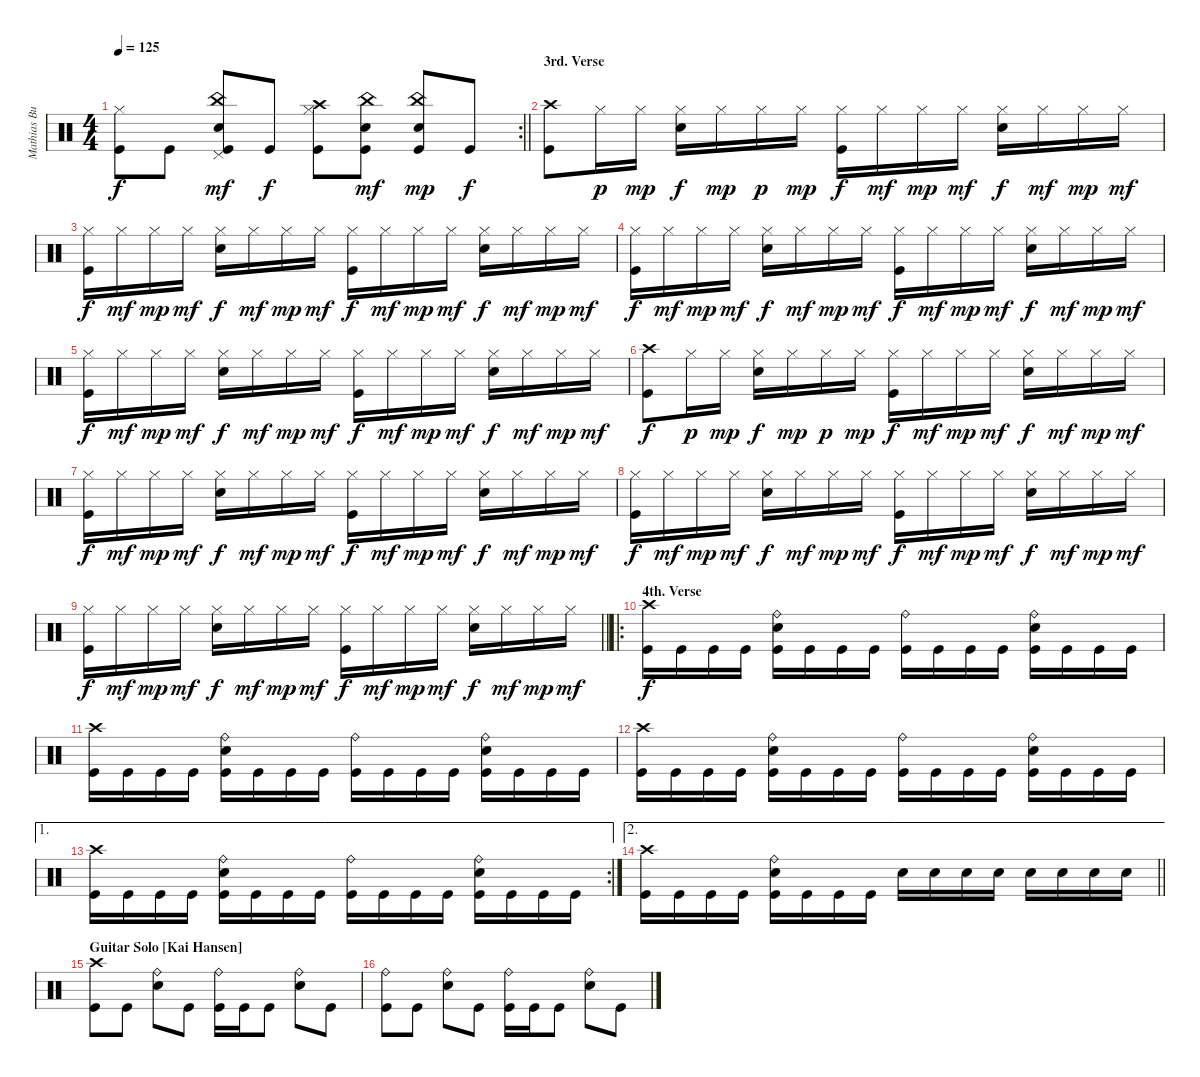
\track ("Mathias Burchardt" "Mathias Bu") {instrument percussion}
\staff {score}
\articulation defaults
\rc 2
\ts (4 4)
\tempo 125
\clef neutral
\barLineRight lightlight
\ks c
("Hi-Hat (closed)" "Kick (hit)").8{dy f} "Kick (hit)".8 ("China (hit)" "Pedal Hi-Hat (hit)" "Snare (hit) 2" "Kick (hit)").8{dy mf} "Kick (hit)".8{dy f} ("Crash high (hit)" "Hi-Hat (closed)" "Kick (hit)").8 ("China (hit)" "Snare (hit) 2" "Kick (hit)").8{dy mf} ("China (hit)" "Snare (hit) 2" "Kick (hit)").8{dy mp} "Kick (hit)".8{dy f} |
\section ("" "3rd. Verse")
("Crash high (hit)" "Kick (hit)").8 "Hi-Hat (closed)".16{dy p} "Hi-Hat (closed)".16{dy mp} ("Hi-Hat (closed)" "Snare (hit) 2").16{dy f} "Hi-Hat (closed)".16{dy mp} "Hi-Hat (closed)".16{dy p} "Hi-Hat (closed)".16{dy mp} ("Hi-Hat (closed)" "Kick (hit)").16{dy f} "Hi-Hat (closed)".16{dy mf} "Hi-Hat (closed)".16{dy mp} "Hi-Hat (closed)".16{dy mf} ("Hi-Hat (closed)" "Snare (hit) 2").16{dy f} "Hi-Hat (closed)".16{dy mf} "Hi-Hat (closed)".16{dy mp} "Hi-Hat (closed)".16{dy mf} |
("Hi-Hat (closed)" "Kick (hit)").16{dy f} "Hi-Hat (closed)".16{dy mf} "Hi-Hat (closed)".16{dy mp} "Hi-Hat (closed)".16{dy mf} ("Hi-Hat (closed)" "Snare (hit) 2").16{dy f} "Hi-Hat (closed)".16{dy mf} "Hi-Hat (closed)".16{dy mp} "Hi-Hat (closed)".16{dy mf} ("Hi-Hat (closed)" "Kick (hit)").16{dy f} "Hi-Hat (closed)".16{dy mf} "Hi-Hat (closed)".16{dy mp} "Hi-Hat (closed)".16{dy mf} ("Hi-Hat (closed)" "Snare (hit) 2").16{dy f} "Hi-Hat (closed)".16{dy mf} "Hi-Hat (closed)".16{dy mp} "Hi-Hat (closed)".16{dy mf} |
("Hi-Hat (closed)" "Kick (hit)").16{dy f} "Hi-Hat (closed)".16{dy mf} "Hi-Hat (closed)".16{dy mp} "Hi-Hat (closed)".16{dy mf} ("Hi-Hat (closed)" "Snare (hit) 2").16{dy f} "Hi-Hat (closed)".16{dy mf} "Hi-Hat (closed)".16{dy mp} "Hi-Hat (closed)".16{dy mf} ("Hi-Hat (closed)" "Kick (hit)").16{dy f} "Hi-Hat (closed)".16{dy mf} "Hi-Hat (closed)".16{dy mp} "Hi-Hat (closed)".16{dy mf} ("Hi-Hat (closed)" "Snare (hit) 2").16{dy f} "Hi-Hat (closed)".16{dy mf} "Hi-Hat (closed)".16{dy mp} "Hi-Hat (closed)".16{dy mf} |
("Hi-Hat (closed)" "Kick (hit)").16{dy f} "Hi-Hat (closed)".16{dy mf} "Hi-Hat (closed)".16{dy mp} "Hi-Hat (closed)".16{dy mf} ("Hi-Hat (closed)" "Snare (hit) 2").16{dy f} "Hi-Hat (closed)".16{dy mf} "Hi-Hat (closed)".16{dy mp} "Hi-Hat (closed)".16{dy mf} ("Hi-Hat (closed)" "Kick (hit)").16{dy f} "Hi-Hat (closed)".16{dy mf} "Hi-Hat (closed)".16{dy mp} "Hi-Hat (closed)".16{dy mf} ("Hi-Hat (closed)" "Snare (hit) 2").16{dy f} "Hi-Hat (closed)".16{dy mf} "Hi-Hat (closed)".16{dy mp} "Hi-Hat (closed)".16{dy mf} |
("Crash high (hit)" "Kick (hit)").8{dy f} "Hi-Hat (closed)".16{dy p} "Hi-Hat (closed)".16{dy mp} ("Hi-Hat (closed)" "Snare (hit) 2").16{dy f} "Hi-Hat (closed)".16{dy mp} "Hi-Hat (closed)".16{dy p} "Hi-Hat (closed)".16{dy mp} ("Hi-Hat (closed)" "Kick (hit)").16{dy f} "Hi-Hat (closed)".16{dy mf} "Hi-Hat (closed)".16{dy mp} "Hi-Hat (closed)".16{dy mf} ("Hi-Hat (closed)" "Snare (hit) 2").16{dy f} "Hi-Hat (closed)".16{dy mf} "Hi-Hat (closed)".16{dy mp} "Hi-Hat (closed)".16{dy mf} |
("Hi-Hat (closed)" "Kick (hit)").16{dy f} "Hi-Hat (closed)".16{dy mf} "Hi-Hat (closed)".16{dy mp} "Hi-Hat (closed)".16{dy mf} ("Hi-Hat (closed)" "Snare (hit) 2").16{dy f} "Hi-Hat (closed)".16{dy mf} "Hi-Hat (closed)".16{dy mp} "Hi-Hat (closed)".16{dy mf} ("Hi-Hat (closed)" "Kick (hit)").16{dy f} "Hi-Hat (closed)".16{dy mf} "Hi-Hat (closed)".16{dy mp} "Hi-Hat (closed)".16{dy mf} ("Hi-Hat (closed)" "Snare (hit) 2").16{dy f} "Hi-Hat (closed)".16{dy mf} "Hi-Hat (closed)".16{dy mp} "Hi-Hat (closed)".16{dy mf} |
("Hi-Hat (closed)" "Kick (hit)").16{dy f} "Hi-Hat (closed)".16{dy mf} "Hi-Hat (closed)".16{dy mp} "Hi-Hat (closed)".16{dy mf} ("Hi-Hat (closed)" "Snare (hit) 2").16{dy f} "Hi-Hat (closed)".16{dy mf} "Hi-Hat (closed)".16{dy mp} "Hi-Hat (closed)".16{dy mf} ("Hi-Hat (closed)" "Kick (hit)").16{dy f} "Hi-Hat (closed)".16{dy mf} "Hi-Hat (closed)".16{dy mp} "Hi-Hat (closed)".16{dy mf} ("Hi-Hat (closed)" "Snare (hit) 2").16{dy f} "Hi-Hat (closed)".16{dy mf} "Hi-Hat (closed)".16{dy mp} "Hi-Hat (closed)".16{dy mf} |
\barLineRight lightlight
("Hi-Hat (closed)" "Kick (hit)").16{dy f} "Hi-Hat (closed)".16{dy mf} "Hi-Hat (closed)".16{dy mp} "Hi-Hat (closed)".16{dy mf} ("Hi-Hat (closed)" "Snare (hit) 2").16{dy f} "Hi-Hat (closed)".16{dy mf} "Hi-Hat (closed)".16{dy mp} "Hi-Hat (closed)".16{dy mf} ("Hi-Hat (closed)" "Kick (hit)").16{dy f} "Hi-Hat (closed)".16{dy mf} "Hi-Hat (closed)".16{dy mp} "Hi-Hat (closed)".16{dy mf} ("Hi-Hat (closed)" "Snare (hit) 2").16{dy f} "Hi-Hat (closed)".16{dy mf} "Hi-Hat (closed)".16{dy mp} "Hi-Hat (closed)".16{dy mf} |
\ro
\section ("" "4th. Verse")
("Crash high (hit)" "Kick (hit)").16{dy f} "Kick (hit)".16 "Kick (hit)".16 "Kick (hit)".16 ("Ride (bell)" "Snare (hit) 2" "Kick (hit)").16 "Kick (hit)".16 "Kick (hit)".16 "Kick (hit)".16 ("Ride (bell)" "Kick (hit)").16 "Kick (hit)".16 "Kick (hit)".16 "Kick (hit)".16 ("Ride (bell)" "Snare (hit) 2" "Kick (hit)").16 "Kick (hit)".16 "Kick (hit)".16 "Kick (hit)".16 |
("Crash high (hit)" "Kick (hit)").16 "Kick (hit)".16 "Kick (hit)".16 "Kick (hit)".16 ("Ride (bell)" "Snare (hit) 2" "Kick (hit)").16 "Kick (hit)".16 "Kick (hit)".16 "Kick (hit)".16 ("Ride (bell)" "Kick (hit)").16 "Kick (hit)".16 "Kick (hit)".16 "Kick (hit)".16 ("Ride (bell)" "Snare (hit) 2" "Kick (hit)").16 "Kick (hit)".16 "Kick (hit)".16 "Kick (hit)".16 |
("Crash high (hit)" "Kick (hit)").16 "Kick (hit)".16 "Kick (hit)".16 "Kick (hit)".16 ("Ride (bell)" "Snare (hit) 2" "Kick (hit)").16 "Kick (hit)".16 "Kick (hit)".16 "Kick (hit)".16 ("Ride (bell)" "Kick (hit)").16 "Kick (hit)".16 "Kick (hit)".16 "Kick (hit)".16 ("Ride (bell)" "Snare (hit) 2" "Kick (hit)").16 "Kick (hit)".16 "Kick (hit)".16 "Kick (hit)".16 |
\ae 1
\rc 2
("Crash high (hit)" "Kick (hit)").16 "Kick (hit)".16 "Kick (hit)".16 "Kick (hit)".16 ("Ride (bell)" "Snare (hit) 2" "Kick (hit)").16 "Kick (hit)".16 "Kick (hit)".16 "Kick (hit)".16 ("Ride (bell)" "Kick (hit)").16 "Kick (hit)".16 "Kick (hit)".16 "Kick (hit)".16 ("Ride (bell)" "Snare (hit) 2" "Kick (hit)").16 "Kick (hit)".16 "Kick (hit)".16 "Kick (hit)".16 |
\ae 2
\barLineRight lightlight
("Crash high (hit)" "Kick (hit)").16 "Kick (hit)".16 "Kick (hit)".16 "Kick (hit)".16 ("Ride (bell)" "Snare (hit) 2" "Kick (hit)").16 "Kick (hit)".16 "Kick (hit)".16 "Kick (hit)".16 "Snare (hit) 2".16 "Snare (hit) 2".16 "Snare (hit) 2".16 "Snare (hit) 2".16 "Snare (hit) 2".16 "Snare (hit) 2".16 "Snare (hit) 2".16 "Snare (hit) 2".16 |
\section ("" "Guitar Solo [Kai Hansen]")
("Crash high (hit)" "Kick (hit)").8 "Kick (hit)".8 ("Ride (bell)" "Snare (hit) 2").8 "Kick (hit)".8 ("Ride (bell)" "Kick (hit)").16 "Kick (hit)".16 "Kick (hit)".8 ("Ride (bell)" "Snare (hit) 2").8 "Kick (hit)".8 |
("Ride (bell)" "Kick (hit)").8 "Kick (hit)".8 ("Ride (bell)" "Snare (hit) 2").8 "Kick (hit)".8 ("Ride (bell)" "Kick (hit)").16 "Kick (hit)".16 "Kick (hit)".8 ("Ride (bell)" "Snare (hit) 2").8 "Kick (hit)".8
